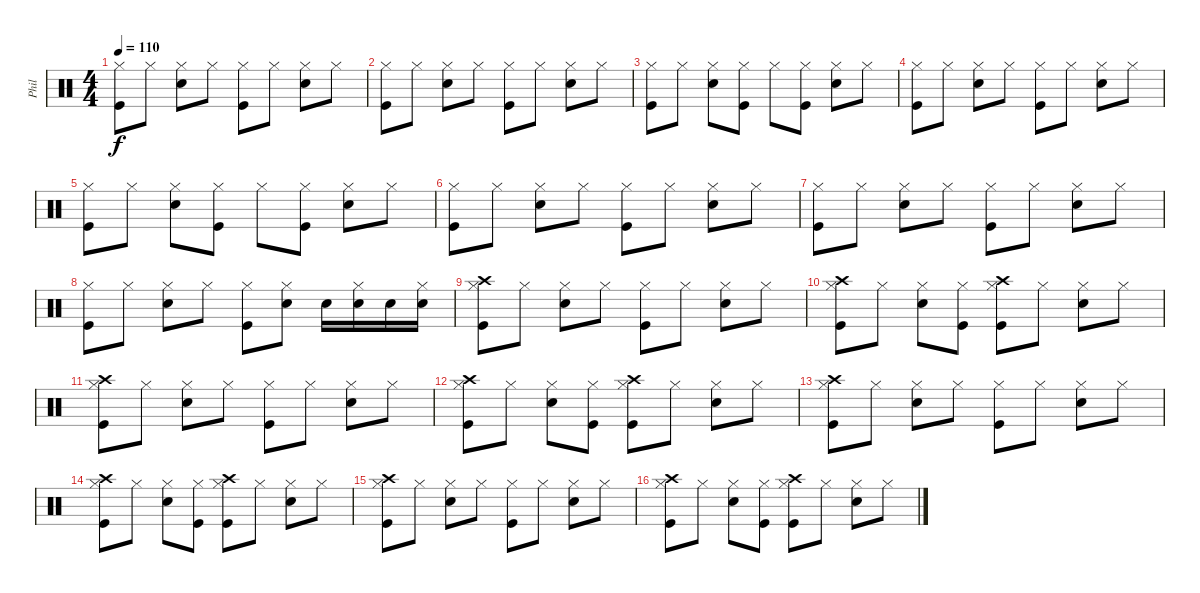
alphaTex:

\track ("Phil" "Phil") {instrument percussion}
\staff {score}
\articulation defaults
\ts (4 4)
\tempo 110
\clef neutral
\ks c
("Hi-Hat (closed)" "Kick (hit)").8{dy f} "Hi-Hat (closed)".8 ("Hi-Hat (closed)" "Snare (hit) 2").8 "Hi-Hat (closed)".8 ("Hi-Hat (closed)" "Kick (hit)").8 "Hi-Hat (closed)".8 ("Hi-Hat (closed)" "Snare (hit) 2").8 "Hi-Hat (closed)".8 |
("Hi-Hat (closed)" "Kick (hit)").8 "Hi-Hat (closed)".8 ("Hi-Hat (closed)" "Snare (hit) 2").8 "Hi-Hat (closed)".8 ("Hi-Hat (closed)" "Kick (hit)").8 "Hi-Hat (closed)".8 ("Hi-Hat (closed)" "Snare (hit) 2").8 "Hi-Hat (closed)".8 |
("Hi-Hat (closed)" "Kick (hit)").8 "Hi-Hat (closed)".8 ("Hi-Hat (closed)" "Snare (hit) 2").8 ("Hi-Hat (closed)" "Kick (hit)").8 "Hi-Hat (closed)".8 ("Hi-Hat (closed)" "Kick (hit)").8 ("Hi-Hat (closed)" "Snare (hit) 2").8 "Hi-Hat (closed)".8 |
("Hi-Hat (closed)" "Kick (hit)").8 "Hi-Hat (closed)".8 ("Hi-Hat (closed)" "Snare (hit) 2").8 "Hi-Hat (closed)".8 ("Hi-Hat (closed)" "Kick (hit)").8 "Hi-Hat (closed)".8 ("Hi-Hat (closed)" "Snare (hit) 2").8 "Hi-Hat (closed)".8 |
("Hi-Hat (closed)" "Kick (hit)").8 "Hi-Hat (closed)".8 ("Hi-Hat (closed)" "Snare (hit) 2").8 ("Hi-Hat (closed)" "Kick (hit)").8 "Hi-Hat (closed)".8 ("Hi-Hat (closed)" "Kick (hit)").8 ("Hi-Hat (closed)" "Snare (hit) 2").8 "Hi-Hat (closed)".8 |
("Hi-Hat (closed)" "Kick (hit)").8 "Hi-Hat (closed)".8 ("Hi-Hat (closed)" "Snare (hit) 2").8 "Hi-Hat (closed)".8 ("Hi-Hat (closed)" "Kick (hit)").8 "Hi-Hat (closed)".8 ("Hi-Hat (closed)" "Snare (hit) 2").8 "Hi-Hat (closed)".8 |
("Hi-Hat (closed)" "Kick (hit)").8 "Hi-Hat (closed)".8 ("Hi-Hat (closed)" "Snare (hit) 2").8 "Hi-Hat (closed)".8 ("Hi-Hat (closed)" "Kick (hit)").8 "Hi-Hat (closed)".8 ("Hi-Hat (closed)" "Snare (hit) 2").8 "Hi-Hat (closed)".8 |
("Hi-Hat (closed)" "Kick (hit)").8 "Hi-Hat (closed)".8 ("Hi-Hat (closed)" "Snare (hit) 2").8 "Hi-Hat (closed)".8 ("Hi-Hat (closed)" "Kick (hit)").8 ("Hi-Hat (closed)" "Snare (hit) 2").8 "Snare (hit) 2".16 ("Hi-Hat (closed)" "Snare (hit) 2").16 "Snare (hit) 2".16 ("Hi-Hat (closed)" "Snare (hit) 2").16 |
("Hi-Hat (closed)" "Crash high (hit)" "Kick (hit)").8 "Hi-Hat (closed)".8 ("Hi-Hat (closed)" "Snare (hit) 2").8 "Hi-Hat (closed)".8 ("Hi-Hat (closed)" "Kick (hit)").8 "Hi-Hat (closed)".8 ("Hi-Hat (closed)" "Snare (hit) 2").8 "Hi-Hat (closed)".8 |
("Hi-Hat (closed)" "Crash high (hit)" "Kick (hit)").8 "Hi-Hat (closed)".8 ("Hi-Hat (closed)" "Snare (hit) 2").8 ("Hi-Hat (closed)" "Kick (hit)").8 ("Hi-Hat (closed)" "Crash high (hit)" "Kick (hit)").8 "Hi-Hat (closed)".8 ("Hi-Hat (closed)" "Snare (hit) 2").8 "Hi-Hat (closed)".8 |
("Hi-Hat (closed)" "Crash high (hit)" "Kick (hit)").8 "Hi-Hat (closed)".8 ("Hi-Hat (closed)" "Snare (hit) 2").8 "Hi-Hat (closed)".8 ("Hi-Hat (closed)" "Kick (hit)").8 "Hi-Hat (closed)".8 ("Hi-Hat (closed)" "Snare (hit) 2").8 "Hi-Hat (closed)".8 |
("Hi-Hat (closed)" "Crash high (hit)" "Kick (hit)").8 "Hi-Hat (closed)".8 ("Hi-Hat (closed)" "Snare (hit) 2").8 ("Hi-Hat (closed)" "Kick (hit)").8 ("Hi-Hat (closed)" "Crash high (hit)" "Kick (hit)").8 "Hi-Hat (closed)".8 ("Hi-Hat (closed)" "Snare (hit) 2").8 "Hi-Hat (closed)".8 |
("Hi-Hat (closed)" "Crash high (hit)" "Kick (hit)").8 "Hi-Hat (closed)".8 ("Hi-Hat (closed)" "Snare (hit) 2").8 "Hi-Hat (closed)".8 ("Hi-Hat (closed)" "Kick (hit)").8 "Hi-Hat (closed)".8 ("Hi-Hat (closed)" "Snare (hit) 2").8 "Hi-Hat (closed)".8 |
("Hi-Hat (closed)" "Crash high (hit)" "Kick (hit)").8 "Hi-Hat (closed)".8 ("Hi-Hat (closed)" "Snare (hit) 2").8 ("Hi-Hat (closed)" "Kick (hit)").8 ("Hi-Hat (closed)" "Crash high (hit)" "Kick (hit)").8 "Hi-Hat (closed)".8 ("Hi-Hat (closed)" "Snare (hit) 2").8 "Hi-Hat (closed)".8 |
("Hi-Hat (closed)" "Crash high (hit)" "Kick (hit)").8 "Hi-Hat (closed)".8 ("Hi-Hat (closed)" "Snare (hit) 2").8 "Hi-Hat (closed)".8 ("Hi-Hat (closed)" "Kick (hit)").8 "Hi-Hat (closed)".8 ("Hi-Hat (closed)" "Snare (hit) 2").8 "Hi-Hat (closed)".8 |
("Hi-Hat (closed)" "Crash high (hit)" "Kick (hit)").8 "Hi-Hat (closed)".8 ("Hi-Hat (closed)" "Snare (hit) 2").8 ("Hi-Hat (closed)" "Kick (hit)").8 ("Hi-Hat (closed)" "Crash high (hit)" "Kick (hit)").8 "Hi-Hat (closed)".8 ("Hi-Hat (closed)" "Snare (hit) 2").8 "Hi-Hat (closed)".8
